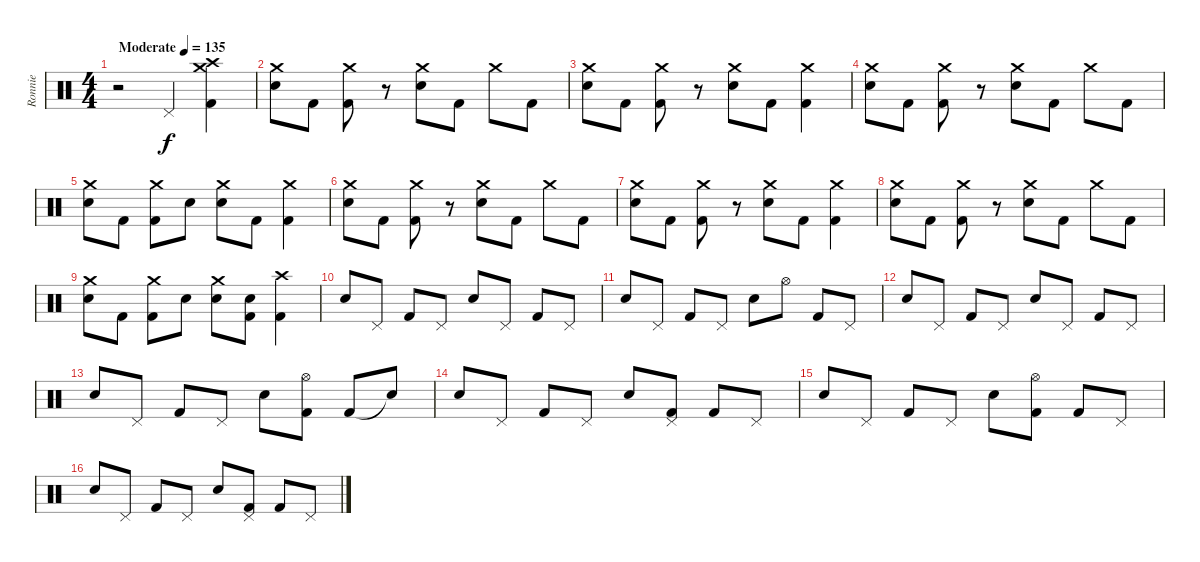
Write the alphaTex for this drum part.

\track ("Ronnie" "Ronnie") {instrument percussion}
\staff {score}
\articulation defaults
\ts (4 4)
\tempo (135 "Moderate")
\clef neutral
\ks c
r.2{dy f} "Pedal Hi-Hat (hit)".4 ("Crash high (hit)" "Kick (hit) 2" "Crash medium (hit)").4 |
("Crash medium (hit)" "Electric Snare (hit)").8 "Kick (hit) 2".8 ("Kick (hit) 2" "Crash medium (hit)").8 r.8 ("Crash medium (hit)" "Electric Snare (hit)").8 "Kick (hit) 2".8 "Crash medium (hit)".8 "Kick (hit) 2".8 |
("Crash medium (hit)" "Electric Snare (hit)").8 "Kick (hit) 2".8 ("Kick (hit) 2" "Crash medium (hit)").8 r.8 ("Crash medium (hit)" "Electric Snare (hit)").8 "Kick (hit) 2".8 ("Kick (hit) 2" "Crash medium (hit)").4 |
("Crash medium (hit)" "Electric Snare (hit)").8 "Kick (hit) 2".8 ("Kick (hit) 2" "Crash medium (hit)").8 r.8 ("Crash medium (hit)" "Electric Snare (hit)").8 "Kick (hit) 2".8 "Crash medium (hit)".8 "Kick (hit) 2".8 |
("Crash medium (hit)" "Electric Snare (hit)").8 "Kick (hit) 2".8 ("Kick (hit) 2" "Crash medium (hit)").8 "Electric Snare (hit)".8 ("Crash medium (hit)" "Electric Snare (hit)").8 "Kick (hit) 2".8 ("Kick (hit) 2" "Crash medium (hit)").4 |
("Crash medium (hit)" "Electric Snare (hit)").8 "Kick (hit) 2".8 ("Kick (hit) 2" "Crash medium (hit)").8 r.8 ("Crash medium (hit)" "Electric Snare (hit)").8 "Kick (hit) 2".8 "Crash medium (hit)".8 "Kick (hit) 2".8 |
("Crash medium (hit)" "Electric Snare (hit)").8 "Kick (hit) 2".8 ("Kick (hit) 2" "Crash medium (hit)").8 r.8 ("Crash medium (hit)" "Electric Snare (hit)").8 "Kick (hit) 2".8 ("Kick (hit) 2" "Crash medium (hit)").4 |
("Crash medium (hit)" "Electric Snare (hit)").8 "Kick (hit) 2".8 ("Kick (hit) 2" "Crash medium (hit)").8 r.8 ("Crash medium (hit)" "Electric Snare (hit)").8 "Kick (hit) 2".8 "Crash medium (hit)".8 "Kick (hit) 2".8 |
("Crash medium (hit)" "Electric Snare (hit)").8 "Kick (hit) 2".8 ("Kick (hit) 2" "Crash medium (hit)").8 "Electric Snare (hit)".8 ("Crash medium (hit)" "Electric Snare (hit)").8 ("Kick (hit) 2" "Electric Snare (hit)").8 ("Crash high (hit)" "Kick (hit) 2").4 |
"Electric Snare (hit)".8 "Pedal Hi-Hat (hit)".8 "Kick (hit) 2".8 "Pedal Hi-Hat (hit)".8 "Electric Snare (hit)".8 "Pedal Hi-Hat (hit)".8 "Kick (hit) 2".8 "Pedal Hi-Hat (hit)".8 |
"Electric Snare (hit)".8 "Pedal Hi-Hat (hit)".8 "Kick (hit) 2".8 "Pedal Hi-Hat (hit)".8 "Electric Snare (hit)".8 "Hi-Hat (open)".8 "Kick (hit) 2".8 "Pedal Hi-Hat (hit)".8 |
"Electric Snare (hit)".8 "Pedal Hi-Hat (hit)".8 "Kick (hit) 2".8 "Pedal Hi-Hat (hit)".8 "Electric Snare (hit)".8 "Pedal Hi-Hat (hit)".8 "Kick (hit) 2".8 "Pedal Hi-Hat (hit)".8 |
"Electric Snare (hit)".8 "Pedal Hi-Hat (hit)".8 "Kick (hit) 2".8 "Pedal Hi-Hat (hit)".8 "Electric Snare (hit)".8 ("Hi-Hat (open)" "Kick (hit) 2").8 "Kick (hit) 2".8 "Electric Snare (hit)"{t}.8 |
"Electric Snare (hit)".8 "Pedal Hi-Hat (hit)".8 "Kick (hit) 2".8 "Pedal Hi-Hat (hit)".8 "Electric Snare (hit)".8 ("Pedal Hi-Hat (hit)" "Kick (hit) 2").8 "Kick (hit) 2".8 "Pedal Hi-Hat (hit)".8 |
"Electric Snare (hit)".8 "Pedal Hi-Hat (hit)".8 "Kick (hit) 2".8 "Pedal Hi-Hat (hit)".8 "Electric Snare (hit)".8 ("Hi-Hat (open)" "Kick (hit) 2").8 "Kick (hit) 2".8 "Pedal Hi-Hat (hit)".8 |
"Electric Snare (hit)".8 "Pedal Hi-Hat (hit)".8 "Kick (hit) 2".8 "Pedal Hi-Hat (hit)".8 "Electric Snare (hit)".8 ("Pedal Hi-Hat (hit)" "Kick (hit) 2").8 "Kick (hit) 2".8 "Pedal Hi-Hat (hit)".8
